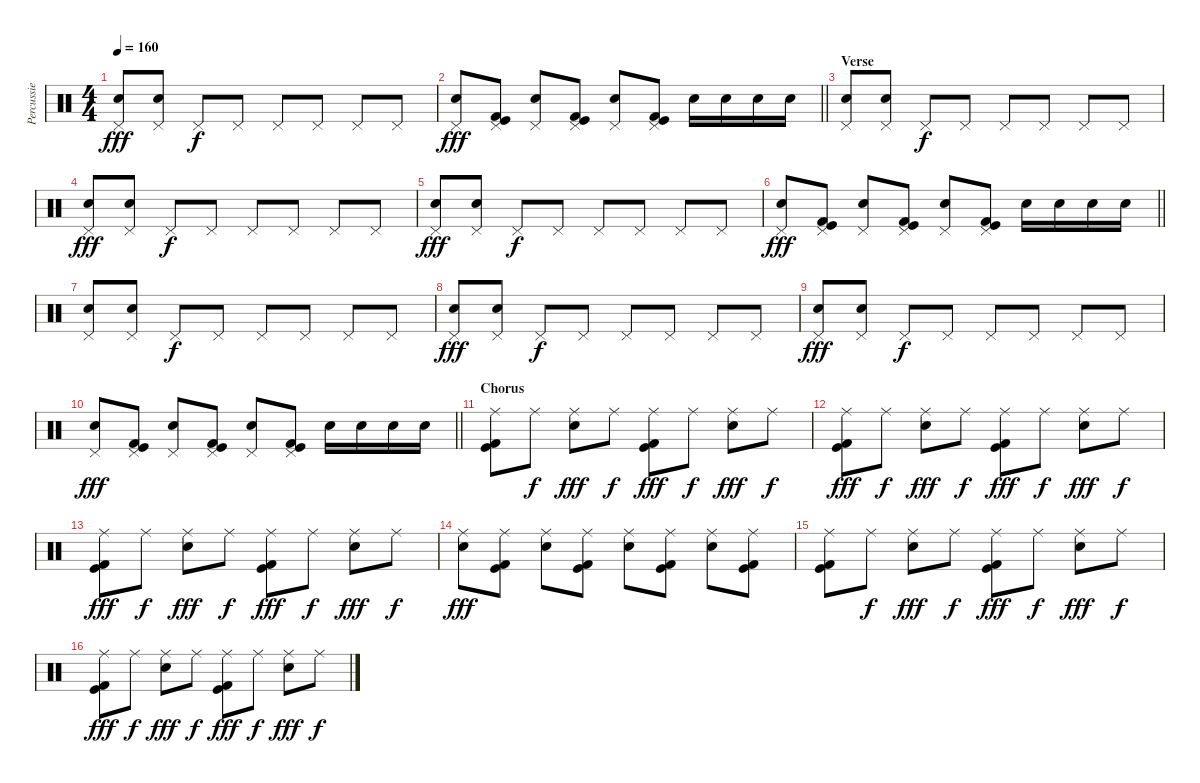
\track ("Percussie" "Percussie") {instrument percussion}
\staff {score}
\articulation defaults
\ts (4 4)
\tempo 160
\clef neutral
\ks c
("Pedal Hi-Hat (hit)" "Snare (hit) 2").8{dy fff} ("Pedal Hi-Hat (hit)" "Snare (hit) 2").8 "Pedal Hi-Hat (hit)".8{dy f} "Pedal Hi-Hat (hit)".8 "Pedal Hi-Hat (hit)".8 "Pedal Hi-Hat (hit)".8 "Pedal Hi-Hat (hit)".8 "Pedal Hi-Hat (hit)".8 |
\barLineRight lightlight
("Pedal Hi-Hat (hit)" "Snare (hit) 2").8{dy fff} ("Pedal Hi-Hat (hit)" "Kick (hit)" "Kick (hit) 2").8 ("Pedal Hi-Hat (hit)" "Snare (hit) 2").8 ("Pedal Hi-Hat (hit)" "Kick (hit)" "Kick (hit) 2").8 ("Pedal Hi-Hat (hit)" "Snare (hit) 2").8 ("Pedal Hi-Hat (hit)" "Kick (hit)" "Kick (hit) 2").8 "Snare (hit) 2".16 "Snare (hit) 2".16 "Snare (hit) 2".16 "Snare (hit) 2".16 |
\section ("" "Verse")
("Pedal Hi-Hat (hit)" "Snare (hit) 2").8 ("Pedal Hi-Hat (hit)" "Snare (hit) 2").8 "Pedal Hi-Hat (hit)".8{dy f} "Pedal Hi-Hat (hit)".8 "Pedal Hi-Hat (hit)".8 "Pedal Hi-Hat (hit)".8 "Pedal Hi-Hat (hit)".8 "Pedal Hi-Hat (hit)".8 |
("Pedal Hi-Hat (hit)" "Snare (hit) 2").8{dy fff} ("Pedal Hi-Hat (hit)" "Snare (hit) 2").8 "Pedal Hi-Hat (hit)".8{dy f} "Pedal Hi-Hat (hit)".8 "Pedal Hi-Hat (hit)".8 "Pedal Hi-Hat (hit)".8 "Pedal Hi-Hat (hit)".8 "Pedal Hi-Hat (hit)".8 |
("Pedal Hi-Hat (hit)" "Snare (hit) 2").8{dy fff} ("Pedal Hi-Hat (hit)" "Snare (hit) 2").8 "Pedal Hi-Hat (hit)".8{dy f} "Pedal Hi-Hat (hit)".8 "Pedal Hi-Hat (hit)".8 "Pedal Hi-Hat (hit)".8 "Pedal Hi-Hat (hit)".8 "Pedal Hi-Hat (hit)".8 |
\barLineRight lightlight
("Pedal Hi-Hat (hit)" "Snare (hit) 2").8{dy fff} ("Pedal Hi-Hat (hit)" "Kick (hit)" "Kick (hit) 2").8 ("Pedal Hi-Hat (hit)" "Snare (hit) 2").8 ("Pedal Hi-Hat (hit)" "Kick (hit)" "Kick (hit) 2").8 ("Pedal Hi-Hat (hit)" "Snare (hit) 2").8 ("Pedal Hi-Hat (hit)" "Kick (hit)" "Kick (hit) 2").8 "Snare (hit) 2".16 "Snare (hit) 2".16 "Snare (hit) 2".16 "Snare (hit) 2".16 |
("Pedal Hi-Hat (hit)" "Snare (hit) 2").8 ("Pedal Hi-Hat (hit)" "Snare (hit) 2").8 "Pedal Hi-Hat (hit)".8{dy f} "Pedal Hi-Hat (hit)".8 "Pedal Hi-Hat (hit)".8 "Pedal Hi-Hat (hit)".8 "Pedal Hi-Hat (hit)".8 "Pedal Hi-Hat (hit)".8 |
("Pedal Hi-Hat (hit)" "Snare (hit) 2").8{dy fff} ("Pedal Hi-Hat (hit)" "Snare (hit) 2").8 "Pedal Hi-Hat (hit)".8{dy f} "Pedal Hi-Hat (hit)".8 "Pedal Hi-Hat (hit)".8 "Pedal Hi-Hat (hit)".8 "Pedal Hi-Hat (hit)".8 "Pedal Hi-Hat (hit)".8 |
("Pedal Hi-Hat (hit)" "Snare (hit) 2").8{dy fff} ("Pedal Hi-Hat (hit)" "Snare (hit) 2").8 "Pedal Hi-Hat (hit)".8{dy f} "Pedal Hi-Hat (hit)".8 "Pedal Hi-Hat (hit)".8 "Pedal Hi-Hat (hit)".8 "Pedal Hi-Hat (hit)".8 "Pedal Hi-Hat (hit)".8 |
\barLineRight lightlight
("Pedal Hi-Hat (hit)" "Snare (hit) 2").8{dy fff} ("Pedal Hi-Hat (hit)" "Kick (hit)" "Kick (hit) 2").8 ("Pedal Hi-Hat (hit)" "Snare (hit) 2").8 ("Pedal Hi-Hat (hit)" "Kick (hit)" "Kick (hit) 2").8 ("Pedal Hi-Hat (hit)" "Snare (hit) 2").8 ("Pedal Hi-Hat (hit)" "Kick (hit)" "Kick (hit) 2").8 "Snare (hit) 2".16 "Snare (hit) 2".16 "Snare (hit) 2".16 "Snare (hit) 2".16 |
\section ("" "Chorus")
("Ride (middle)" "Kick (hit)" "Kick (hit) 2").8 "Ride (middle)".8{dy f} ("Ride (middle)" "Snare (hit) 2").8{dy fff} "Ride (middle)".8{dy f} ("Ride (middle)" "Kick (hit)" "Kick (hit) 2").8{dy fff} "Ride (middle)".8{dy f} ("Ride (middle)" "Snare (hit) 2").8{dy fff} "Ride (middle)".8{dy f} |
("Ride (middle)" "Kick (hit)" "Kick (hit) 2").8{dy fff} "Ride (middle)".8{dy f} ("Ride (middle)" "Snare (hit) 2").8{dy fff} "Ride (middle)".8{dy f} ("Ride (middle)" "Kick (hit)" "Kick (hit) 2").8{dy fff} "Ride (middle)".8{dy f} ("Ride (middle)" "Snare (hit) 2").8{dy fff} "Ride (middle)".8{dy f} |
("Ride (middle)" "Kick (hit)" "Kick (hit) 2").8{dy fff} "Ride (middle)".8{dy f} ("Ride (middle)" "Snare (hit) 2").8{dy fff} "Ride (middle)".8{dy f} ("Ride (middle)" "Kick (hit)" "Kick (hit) 2").8{dy fff} "Ride (middle)".8{dy f} ("Ride (middle)" "Snare (hit) 2").8{dy fff} "Ride (middle)".8{dy f} |
("Ride (middle)" "Snare (hit) 2").8{dy fff} ("Ride (middle)" "Kick (hit)" "Kick (hit) 2").8 ("Ride (middle)" "Snare (hit) 2").8 ("Ride (middle)" "Kick (hit)" "Kick (hit) 2").8 ("Ride (middle)" "Snare (hit) 2").8 ("Ride (middle)" "Kick (hit)" "Kick (hit) 2").8 ("Ride (middle)" "Snare (hit) 2").8 ("Ride (middle)" "Kick (hit)" "Kick (hit) 2").8 |
("Ride (middle)" "Kick (hit)" "Kick (hit) 2").8 "Ride (middle)".8{dy f} ("Ride (middle)" "Snare (hit) 2").8{dy fff} "Ride (middle)".8{dy f} ("Ride (middle)" "Kick (hit)" "Kick (hit) 2").8{dy fff} "Ride (middle)".8{dy f} ("Ride (middle)" "Snare (hit) 2").8{dy fff} "Ride (middle)".8{dy f} |
("Ride (middle)" "Kick (hit)" "Kick (hit) 2").8{dy fff} "Ride (middle)".8{dy f} ("Ride (middle)" "Snare (hit) 2").8{dy fff} "Ride (middle)".8{dy f} ("Ride (middle)" "Kick (hit)" "Kick (hit) 2").8{dy fff} "Ride (middle)".8{dy f} ("Ride (middle)" "Snare (hit) 2").8{dy fff} "Ride (middle)".8{dy f}
